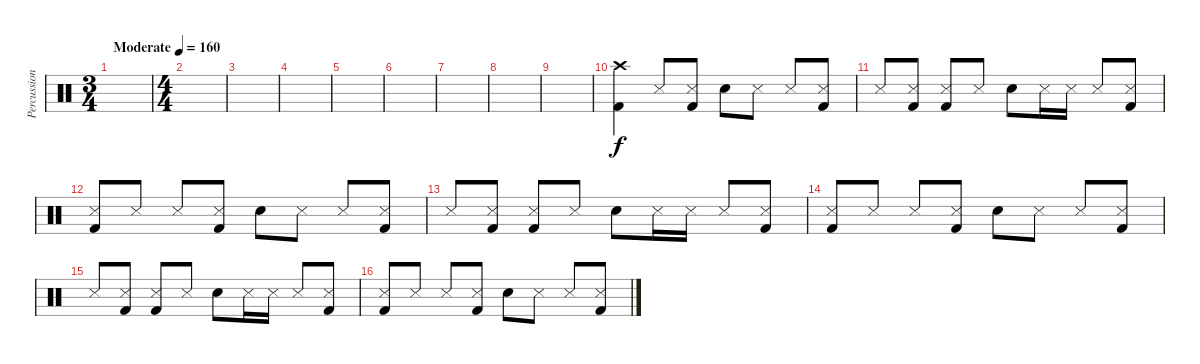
\track ("Percussion" "Percussion") {instrument percussion}
\staff {score}
\articulation defaults
\ts (3 4)
\tempo (160 "Moderate")
\clef neutral
\ks c
|
\ts (4 4)
|
|
|
|
|
|
|
|
("Crash high (hit)" "Kick (hit) 2").4 "Snare (side stick) 3".8 ("Snare (side stick) 3" "Kick (hit) 2").8 "Electric Snare (hit)".8 "Snare (side stick) 3".8 "Snare (side stick) 3".8 ("Snare (side stick) 3" "Kick (hit) 2").8 |
"Snare (side stick) 3".8 ("Snare (side stick) 3" "Kick (hit) 2").8 ("Snare (side stick) 3" "Kick (hit) 2").8 "Snare (side stick) 3".8 "Electric Snare (hit)".8 "Snare (side stick) 3".16 "Snare (side stick) 3".16 "Snare (side stick) 3".8 ("Snare (side stick) 3" "Kick (hit) 2").8 |
("Snare (side stick) 3" "Kick (hit) 2").8 "Snare (side stick) 3".8 "Snare (side stick) 3".8 ("Snare (side stick) 3" "Kick (hit) 2").8 "Electric Snare (hit)".8 "Snare (side stick) 3".8 "Snare (side stick) 3".8 ("Snare (side stick) 3" "Kick (hit) 2").8 |
"Snare (side stick) 3".8 ("Snare (side stick) 3" "Kick (hit) 2").8 ("Snare (side stick) 3" "Kick (hit) 2").8 "Snare (side stick) 3".8 "Electric Snare (hit)".8 "Snare (side stick) 3".16 "Snare (side stick) 3".16 "Snare (side stick) 3".8 ("Snare (side stick) 3" "Kick (hit) 2").8 |
("Snare (side stick) 3" "Kick (hit) 2").8 "Snare (side stick) 3".8 "Snare (side stick) 3".8 ("Snare (side stick) 3" "Kick (hit) 2").8 "Electric Snare (hit)".8 "Snare (side stick) 3".8 "Snare (side stick) 3".8 ("Snare (side stick) 3" "Kick (hit) 2").8 |
"Snare (side stick) 3".8 ("Snare (side stick) 3" "Kick (hit) 2").8 ("Snare (side stick) 3" "Kick (hit) 2").8 "Snare (side stick) 3".8 "Electric Snare (hit)".8 "Snare (side stick) 3".16 "Snare (side stick) 3".16 "Snare (side stick) 3".8 ("Snare (side stick) 3" "Kick (hit) 2").8 |
("Snare (side stick) 3" "Kick (hit) 2").8 "Snare (side stick) 3".8 "Snare (side stick) 3".8 ("Snare (side stick) 3" "Kick (hit) 2").8 "Electric Snare (hit)".8 "Snare (side stick) 3".8 "Snare (side stick) 3".8 ("Snare (side stick) 3" "Kick (hit) 2").8
